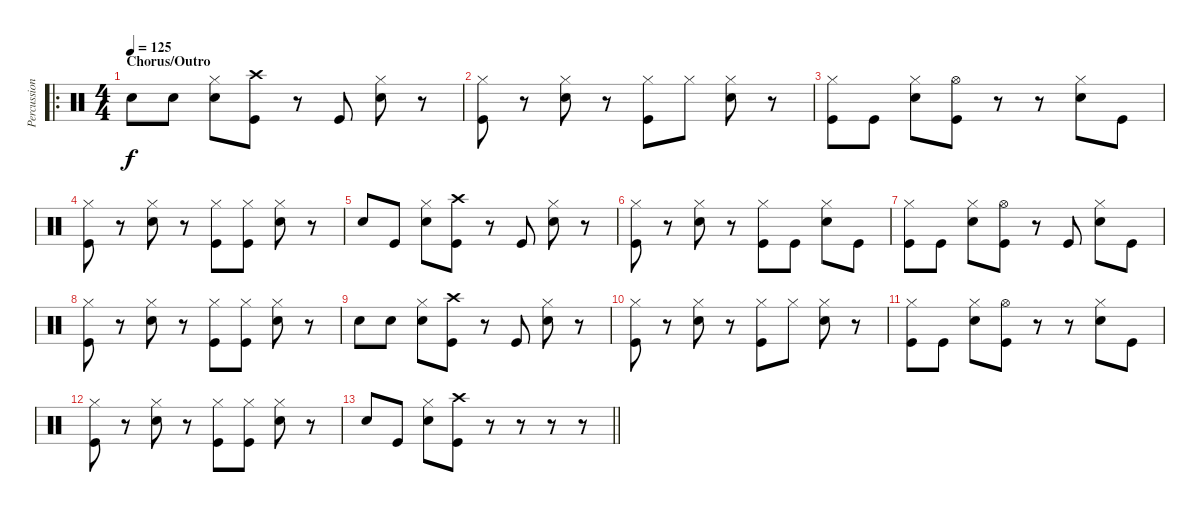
\track ("Percussion" "Percussion") {instrument percussion bank 177}
\staff {score}
\articulation defaults
\ro
\ts (4 4)
\section ("" "Chorus/Outro")
\tempo 125
\clef neutral
\ks c "Snare (hit) 2".8{dy f} "Snare (hit) 2".8
("Hi-Hat (closed)" "Snare (hit) 2").8 ("Crash high (hit)" "Kick (hit)").8 r.8 "Kick (hit)".8 ("Hi-Hat (closed)" "Snare (hit) 2").8 r.8 |
("Hi-Hat (closed)" "Kick (hit)").8 r.8 ("Hi-Hat (closed)" "Snare (hit) 2").8 r.8 ("Hi-Hat (closed)" "Kick (hit)").8 "Hi-Hat (closed)".8 ("Hi-Hat (closed)" "Snare (hit) 2").8 r.8 |
("Hi-Hat (closed)" "Kick (hit)").8 "Kick (hit)".8 ("Hi-Hat (closed)" "Snare (hit) 2").8 ("Hi-Hat (open)" "Kick (hit)").8 r.8 r.8 ("Hi-Hat (closed)" "Snare (hit) 2").8 "Kick (hit)".8 |
("Hi-Hat (closed)" "Kick (hit)").8 r.8 ("Hi-Hat (closed)" "Snare (hit) 2").8 r.8 ("Hi-Hat (closed)" "Kick (hit)").8 ("Hi-Hat (closed)" "Kick (hit)").8 ("Hi-Hat (closed)" "Snare (hit) 2").8 r.8 |
"Snare (hit) 2".8 "Kick (hit)".8 ("Hi-Hat (closed)" "Snare (hit) 2").8 ("Crash high (hit)" "Kick (hit)").8 r.8 "Kick (hit)".8 ("Hi-Hat (closed)" "Snare (hit) 2").8 r.8 |
("Hi-Hat (closed)" "Kick (hit)").8 r.8 ("Hi-Hat (closed)" "Snare (hit) 2").8 r.8 ("Hi-Hat (closed)" "Kick (hit)").8 "Kick (hit)".8 ("Hi-Hat (closed)" "Snare (hit) 2").8 "Kick (hit)".8 |
("Hi-Hat (closed)" "Kick (hit)").8 "Kick (hit)".8 ("Hi-Hat (closed)" "Snare (hit) 2").8 ("Hi-Hat (open)" "Kick (hit)").8 r.8 "Kick (hit)".8 ("Hi-Hat (closed)" "Snare (hit) 2").8 "Kick (hit)".8 |
("Hi-Hat (closed)" "Kick (hit)").8 r.8 ("Hi-Hat (closed)" "Snare (hit) 2").8 r.8 ("Hi-Hat (closed)" "Kick (hit)").8 ("Hi-Hat (closed)" "Kick (hit)").8 ("Hi-Hat (closed)" "Snare (hit) 2").8 r.8 |
"Snare (hit) 2".8 "Snare (hit) 2".8 ("Hi-Hat (closed)" "Snare (hit) 2").8 ("Crash high (hit)" "Kick (hit)").8 r.8 "Kick (hit)".8 ("Hi-Hat (closed)" "Snare (hit) 2").8 r.8 |
("Hi-Hat (closed)" "Kick (hit)").8 r.8 ("Hi-Hat (closed)" "Snare (hit) 2").8 r.8 ("Hi-Hat (closed)" "Kick (hit)").8 "Hi-Hat (closed)".8 ("Hi-Hat (closed)" "Snare (hit) 2").8 r.8 |
("Hi-Hat (closed)" "Kick (hit)").8 "Kick (hit)".8 ("Hi-Hat (closed)" "Snare (hit) 2").8 ("Hi-Hat (open)" "Kick (hit)").8 r.8 r.8 ("Hi-Hat (closed)" "Snare (hit) 2").8 "Kick (hit)".8 |
("Hi-Hat (closed)" "Kick (hit)").8 r.8 ("Hi-Hat (closed)" "Snare (hit) 2").8 r.8 ("Hi-Hat (closed)" "Kick (hit)").8 ("Hi-Hat (closed)" "Kick (hit)").8 ("Hi-Hat (closed)" "Snare (hit) 2").8 r.8 |
\barLineRight lightlight "Snare (hit) 2".8 "Kick (hit)".8
("Hi-Hat (closed)" "Snare (hit) 2").8 ("Crash high (hit)" "Kick (hit)").8 r.8 r.8 r.8 r.8
